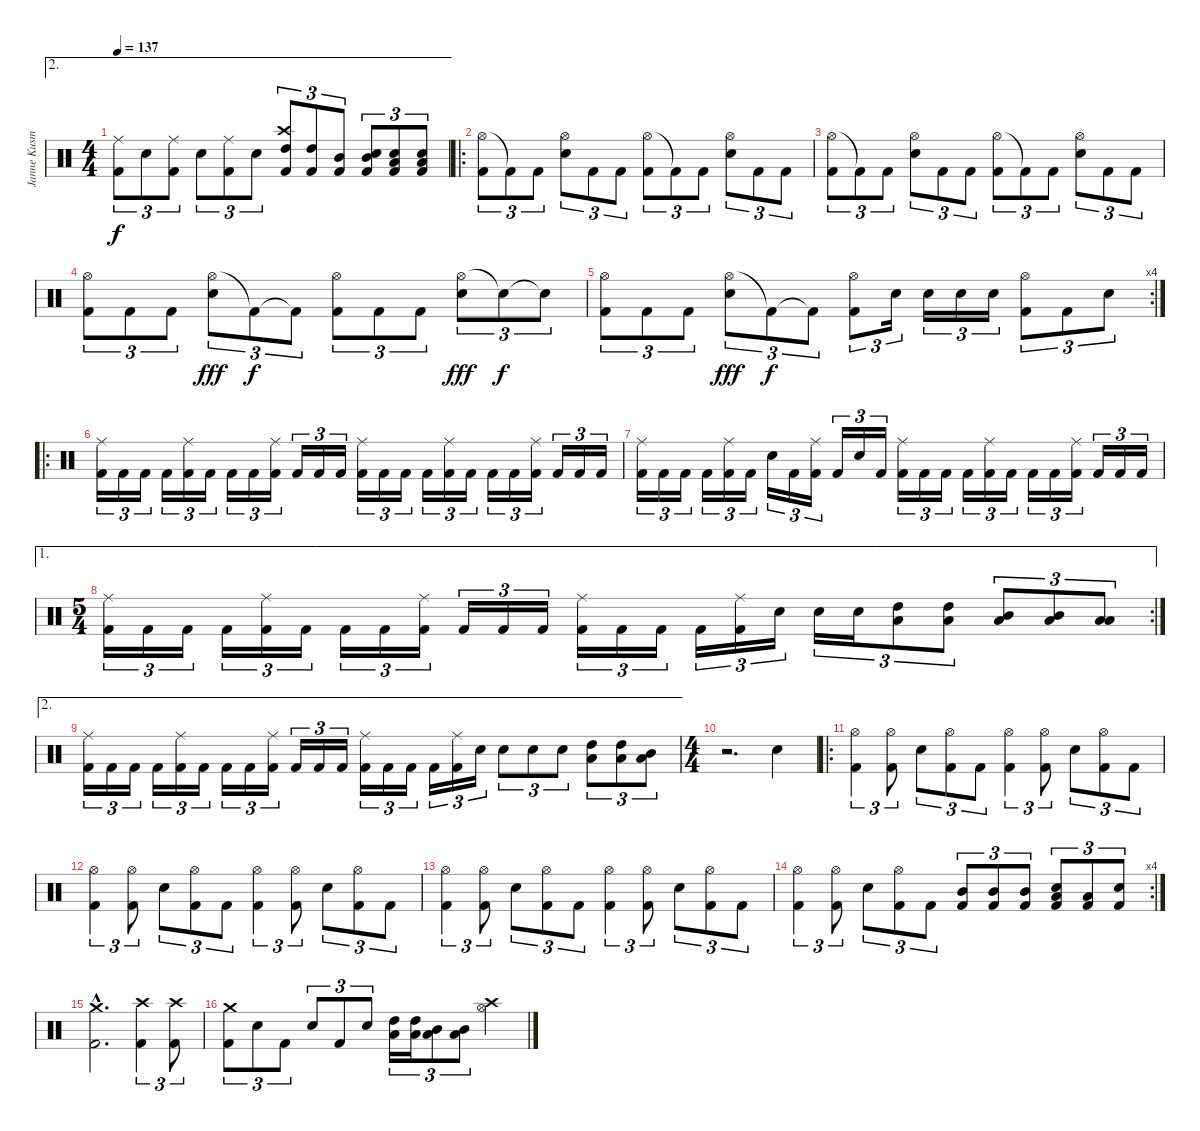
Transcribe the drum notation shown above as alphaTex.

\track ("Janne Kusmin" "Janne Kusm") {instrument percussion}
\staff {score}
\articulation defaults
\ae 2
\ts (4 4)
\tempo 137
\clef neutral
\ks c
("Ride (middle)" "Kick (hit) 2").8{tu (3 2) dy f} "Electric Snare (hit)".8{tu (3 2)} ("Ride (middle)" "Kick (hit) 2").8{tu (3 2)} "Electric Snare (hit)".8{tu (3 2)} ("Ride (middle)" "Kick (hit) 2").8{tu (3 2)} "Electric Snare (hit)".8{tu (3 2)} ("Crash high (hit)" "High Tom (hit)" "Kick (hit) 2").8{tu (3 2)} ("High Tom (hit)" "Kick (hit) 2").8{tu (3 2)} ("Mid Tom (hit)" "Kick (hit) 2").8{tu (3 2)} ("Mid Tom (hit)" "Electric Snare (hit)" "Kick (hit) 2").8{tu (3 2)} ("Low Tom (hit)" "Electric Snare (hit)" "Kick (hit) 2").8{tu (3 2)} ("Low Tom (hit)" "Electric Snare (hit)" "Kick (hit) 2").8{tu (3 2)} |
\ro
("Hi-Hat (open)" "Kick (hit) 2").8{tu (3 2)} "Kick (hit) 2"{t}.8{tu (3 2)} "Kick (hit) 2".8{tu (3 2)} ("Hi-Hat (open)" "Electric Snare (hit)").8{tu (3 2)} "Kick (hit) 2".8{tu (3 2)} "Kick (hit) 2".8{tu (3 2)} ("Hi-Hat (open)" "Kick (hit) 2").8{tu (3 2)} "Kick (hit) 2"{t}.8{tu (3 2)} "Kick (hit) 2".8{tu (3 2)} ("Hi-Hat (open)" "Electric Snare (hit)").8{tu (3 2)} "Kick (hit) 2".8{tu (3 2)} "Kick (hit) 2".8{tu (3 2)} |
("Hi-Hat (open)" "Kick (hit) 2").8{tu (3 2)} "Kick (hit) 2"{t}.8{tu (3 2)} "Kick (hit) 2".8{tu (3 2)} ("Hi-Hat (open)" "Electric Snare (hit)").8{tu (3 2)} "Kick (hit) 2".8{tu (3 2)} "Kick (hit) 2".8{tu (3 2)} ("Hi-Hat (open)" "Kick (hit) 2").8{tu (3 2)} "Kick (hit) 2"{t}.8{tu (3 2)} "Kick (hit) 2".8{tu (3 2)} ("Hi-Hat (open)" "Electric Snare (hit)").8{tu (3 2)} "Kick (hit) 2".8{tu (3 2)} "Kick (hit) 2".8{tu (3 2)} |
("Hi-Hat (open)" "Kick (hit) 2").8{tu (3 2)} "Kick (hit) 2".8{tu (3 2)} "Kick (hit) 2".8{tu (3 2)} ("Hi-Hat (open)" "Snare (hit) 2").8{tu (3 2) dy fff} "Kick (hit) 2"{t}.8{tu (3 2) dy f} "Kick (hit) 2"{t}.8{tu (3 2)} ("Hi-Hat (open)" "Kick (hit) 2").8{tu (3 2)} "Kick (hit) 2".8{tu (3 2)} "Kick (hit) 2".8{tu (3 2)} ("Hi-Hat (open)" "Snare (hit) 2").8{tu (3 2) dy fff} "Snare (hit)"{t}.8{tu (3 2) dy f} "Snare (hit)"{t}.8{tu (3 2)} |
\rc 4
("Hi-Hat (open)" "Kick (hit) 2").8{tu (3 2)} "Kick (hit) 2".8{tu (3 2)} "Kick (hit) 2".8{tu (3 2)} ("Hi-Hat (open)" "Snare (hit) 2").8{tu (3 2) dy fff} "Kick (hit) 2"{t}.8{tu (3 2) dy f} "Kick (hit) 2"{t}.8{tu (3 2)} ("Hi-Hat (open)" "Kick (hit) 2").8{tu (3 2)} "Electric Snare (hit)".16{tu (3 2)} "Electric Snare (hit)".16{tu (3 2)} "Electric Snare (hit)".16{tu (3 2)} "Electric Snare (hit)".16{tu (3 2)} ("Hi-Hat (open)" "Kick (hit) 2").8{tu (3 2)} "Kick (hit) 2".8{tu (3 2)} "Snare (hit) 2".8{tu (3 2)} |
\ro
("Ride (middle)" "Kick (hit) 2").16{tu (3 2)} "Kick (hit) 2".16{tu (3 2)} "Kick (hit) 2".16{tu (3 2)} "Kick (hit) 2".16{tu (3 2)} ("Ride (middle)" "Kick (hit) 2").16{tu (3 2)} "Kick (hit) 2".16{tu (3 2)} "Kick (hit) 2".16{tu (3 2)} "Kick (hit) 2".16{tu (3 2)} ("Ride (middle)" "Kick (hit) 2").16{tu (3 2)} "Kick (hit) 2".16{tu (3 2)} "Kick (hit) 2".16{tu (3 2)} "Kick (hit) 2".16{tu (3 2)} ("Ride (middle)" "Kick (hit) 2").16{tu (3 2)} "Kick (hit) 2".16{tu (3 2)} "Kick (hit) 2".16{tu (3 2)} "Kick (hit) 2".16{tu (3 2)} ("Ride (middle)" "Kick (hit) 2").16{tu (3 2)} "Kick (hit) 2".16{tu (3 2)} "Kick (hit) 2".16{tu (3 2)} "Kick (hit) 2".16{tu (3 2)} ("Ride (middle)" "Kick (hit) 2").16{tu (3 2)} "Kick (hit) 2".16{tu (3 2)} "Kick (hit) 2".16{tu (3 2)} "Kick (hit) 2".16{tu (3 2)} |
("Ride (middle)" "Kick (hit) 2").16{tu (3 2)} "Kick (hit) 2".16{tu (3 2)} "Kick (hit) 2".16{tu (3 2)} "Kick (hit) 2".16{tu (3 2)} ("Ride (middle)" "Kick (hit) 2").16{tu (3 2)} "Kick (hit) 2".16{tu (3 2)} "Electric Snare (hit)".16{tu (3 2)} "Kick (hit) 2".16{tu (3 2)} ("Ride (middle)" "Kick (hit) 2").16{tu (3 2)} "Kick (hit) 2".16{tu (3 2)} "Electric Snare (hit)".16{tu (3 2)} "Kick (hit) 2".16{tu (3 2)} ("Ride (middle)" "Kick (hit) 2").16{tu (3 2)} "Kick (hit) 2".16{tu (3 2)} "Kick (hit) 2".16{tu (3 2)} "Kick (hit) 2".16{tu (3 2)} ("Ride (middle)" "Kick (hit) 2").16{tu (3 2)} "Kick (hit) 2".16{tu (3 2)} "Kick (hit) 2".16{tu (3 2)} "Kick (hit) 2".16{tu (3 2)} ("Ride (middle)" "Kick (hit) 2").16{tu (3 2)} "Kick (hit) 2".16{tu (3 2)} "Kick (hit) 2".16{tu (3 2)} "Kick (hit) 2".16{tu (3 2)} |
\ae 1
\rc 2
\ts (5 4)
("Ride (middle)" "Kick (hit) 2").16{tu (3 2)} "Kick (hit) 2".16{tu (3 2)} "Kick (hit) 2".16{tu (3 2)} "Kick (hit) 2".16{tu (3 2)} ("Ride (middle)" "Kick (hit) 2").16{tu (3 2)} "Kick (hit) 2".16{tu (3 2)} "Kick (hit) 2".16{tu (3 2)} "Kick (hit) 2".16{tu (3 2)} ("Ride (middle)" "Kick (hit) 2").16{tu (3 2)} "Kick (hit) 2".16{tu (3 2)} "Kick (hit) 2".16{tu (3 2)} "Kick (hit) 2".16{tu (3 2)} ("Ride (middle)" "Kick (hit) 2").16{tu (3 2)} "Kick (hit) 2".16{tu (3 2)} "Kick (hit) 2".16{tu (3 2)} "Kick (hit) 2".16{tu (3 2)} ("Ride (middle)" "Kick (hit) 2").16{tu (3 2)} "Snare (hit) 2".16{tu (3 2)} "Snare (hit) 2".16{tu (3 2)} "Snare (hit) 2".16{tu (3 2)} ("High Tom (hit)" "Low Tom (hit)").8{tu (3 2)} ("High Tom (hit)" "Low Tom (hit)").8{tu (3 2)} ("Mid Tom (hit)" "Low Tom (hit)").8{tu (3 2)} ("Mid Tom (hit)" "Low Tom (hit)").8{tu (3 2)} ("Low Tom (hit)" "Low Tom (hit)").8{tu (3 2)} |
\ae 2
("Ride (middle)" "Kick (hit) 2").16{tu (3 2)} "Kick (hit) 2".16{tu (3 2)} "Kick (hit) 2".16{tu (3 2)} "Kick (hit) 2".16{tu (3 2)} ("Ride (middle)" "Kick (hit) 2").16{tu (3 2)} "Kick (hit) 2".16{tu (3 2)} "Kick (hit) 2".16{tu (3 2)} "Kick (hit) 2".16{tu (3 2)} ("Ride (middle)" "Kick (hit) 2").16{tu (3 2)} "Kick (hit) 2".16{tu (3 2)} "Kick (hit) 2".16{tu (3 2)} "Kick (hit) 2".16{tu (3 2)} ("Ride (middle)" "Kick (hit) 2").16{tu (3 2)} "Kick (hit) 2".16{tu (3 2)} "Kick (hit) 2".16{tu (3 2)} "Kick (hit) 2".16{tu (3 2)} ("Ride (middle)" "Kick (hit) 2").16{tu (3 2)} "Electric Snare (hit)".16{tu (3 2)} "Electric Snare (hit)".8{tu (3 2)} "Electric Snare (hit)".8{tu (3 2)} "Electric Snare (hit)".8{tu (3 2)} ("High Tom (hit)" "Low Tom (hit)").8{tu (3 2)} ("High Tom (hit)" "Low Tom (hit)").8{tu (3 2)} ("Mid Tom (hit)" "Low Tom (hit)").8{tu (3 2)} |
\ts (4 4)
r.2{d} "Electric Snare (hit)".4 |
\ro
("Hi-Hat (open)" "Kick (hit) 2").4{tu (3 2)} ("Hi-Hat (open)" "Kick (hit) 2").8{tu (3 2)} "Electric Snare (hit)".8{tu (3 2)} ("Hi-Hat (open)" "Kick (hit) 2").8{tu (3 2)} "Kick (hit) 2".8{tu (3 2)} ("Hi-Hat (open)" "Kick (hit) 2").4{tu (3 2)} ("Hi-Hat (open)" "Kick (hit) 2").8{tu (3 2)} "Electric Snare (hit)".8{tu (3 2)} ("Hi-Hat (open)" "Kick (hit) 2").8{tu (3 2)} "Kick (hit) 2".8{tu (3 2)} |
("Hi-Hat (open)" "Kick (hit) 2").4{tu (3 2)} ("Hi-Hat (open)" "Kick (hit) 2").8{tu (3 2)} "Electric Snare (hit)".8{tu (3 2)} ("Hi-Hat (open)" "Kick (hit) 2").8{tu (3 2)} "Kick (hit) 2".8{tu (3 2)} ("Hi-Hat (open)" "Kick (hit) 2").4{tu (3 2)} ("Hi-Hat (open)" "Kick (hit) 2").8{tu (3 2)} "Electric Snare (hit)".8{tu (3 2)} ("Hi-Hat (open)" "Kick (hit) 2").8{tu (3 2)} "Kick (hit) 2".8{tu (3 2)} |
("Hi-Hat (open)" "Kick (hit) 2").4{tu (3 2)} ("Hi-Hat (open)" "Kick (hit) 2").8{tu (3 2)} "Electric Snare (hit)".8{tu (3 2)} ("Hi-Hat (open)" "Kick (hit) 2").8{tu (3 2)} "Kick (hit) 2".8{tu (3 2)} ("Hi-Hat (open)" "Kick (hit) 2").4{tu (3 2)} ("Hi-Hat (open)" "Kick (hit) 2").8{tu (3 2)} "Electric Snare (hit)".8{tu (3 2)} ("Hi-Hat (open)" "Kick (hit) 2").8{tu (3 2)} "Kick (hit) 2".8{tu (3 2)} |
\rc 4
("Hi-Hat (open)" "Kick (hit) 2").4{tu (3 2)} ("Hi-Hat (open)" "Kick (hit) 2").8{tu (3 2)} "Electric Snare (hit)".8{tu (3 2)} ("Hi-Hat (open)" "Kick (hit) 2").8{tu (3 2)} "Kick (hit) 2".8{tu (3 2)} ("Mid Tom (hit)" "Kick (hit) 2").8{tu (3 2)} ("Mid Tom (hit)" "Kick (hit) 2").8{tu (3 2)} ("Mid Tom (hit)" "Kick (hit) 2").8{tu (3 2)} ("Low Tom (hit)" "Electric Snare (hit)" "Kick (hit) 2").8{tu (3 2)} ("Low Tom (hit)" "Kick (hit) 2").8{tu (3 2)} ("Electric Snare (hit)" "Kick (hit) 2").8{tu (3 2)} |
("Crash medium (hit)"{hac} "Kick (hit) 2"{hac}).2{d} ("Crash high (hit)" "Kick (hit) 2").4{tu (3 2)} ("Crash high (hit)" "Kick (hit) 2").8{tu (3 2)} |
("Crash medium (hit)" "Kick (hit) 2").8{tu (3 2)} "Electric Snare (hit)".8{tu (3 2)} "Kick (hit) 2".8{tu (3 2)} "Electric Snare (hit)".8{tu (3 2)} "Kick (hit) 2".8{tu (3 2)} "Electric Snare (hit)".8{tu (3 2)} ("High Tom (hit)" "Low Tom (hit)").16{tu (3 2)} ("High Tom (hit)" "Low Tom (hit)").16{tu (3 2)} ("Mid Tom (hit)" "Low Tom (hit)").8{tu (3 2)} ("Mid Tom (hit)" "Low Tom (hit)").8{tu (3 2)} ("Crash high (hit)" "Hi-Hat (open)").4
